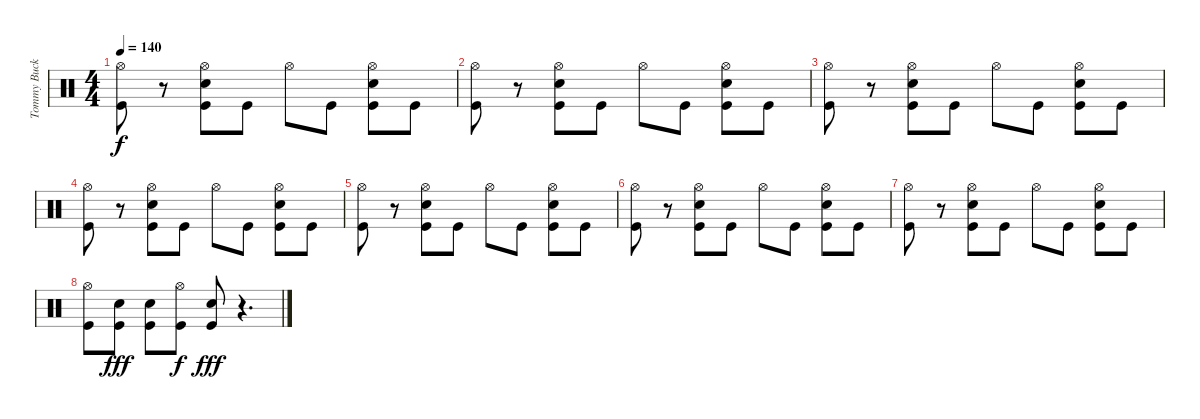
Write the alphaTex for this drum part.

\track ("Tommy Buckly (drums)" "Tommy Buck") {instrument percussion}
\staff {score}
\articulation defaults
\ts (4 4)
\tempo 140
\clef neutral
\ks c
("Hi-Hat (open)" "Kick (hit)").8{dy f} r.8 ("Hi-Hat (open)" "Electric Snare (hit)" "Kick (hit)").8 "Kick (hit)".8 "Hi-Hat (open)".8 "Kick (hit)".8 ("Hi-Hat (open)" "Electric Snare (hit)" "Kick (hit)").8 "Kick (hit)".8 |
("Hi-Hat (open)" "Kick (hit)").8 r.8 ("Hi-Hat (open)" "Electric Snare (hit)" "Kick (hit)").8 "Kick (hit)".8 "Hi-Hat (open)".8 "Kick (hit)".8 ("Hi-Hat (open)" "Electric Snare (hit)" "Kick (hit)").8 "Kick (hit)".8 |
("Hi-Hat (open)" "Kick (hit)").8 r.8 ("Hi-Hat (open)" "Electric Snare (hit)" "Kick (hit)").8 "Kick (hit)".8 "Hi-Hat (open)".8 "Kick (hit)".8 ("Hi-Hat (open)" "Electric Snare (hit)" "Kick (hit)").8 "Kick (hit)".8 |
("Hi-Hat (open)" "Kick (hit)").8 r.8 ("Hi-Hat (open)" "Electric Snare (hit)" "Kick (hit)").8 "Kick (hit)".8 "Hi-Hat (open)".8 "Kick (hit)".8 ("Hi-Hat (open)" "Electric Snare (hit)" "Kick (hit)").8 "Kick (hit)".8 |
("Hi-Hat (open)" "Kick (hit)").8 r.8 ("Hi-Hat (open)" "Electric Snare (hit)" "Kick (hit)").8 "Kick (hit)".8 "Hi-Hat (open)".8 "Kick (hit)".8 ("Hi-Hat (open)" "Electric Snare (hit)" "Kick (hit)").8 "Kick (hit)".8 |
("Hi-Hat (open)" "Kick (hit)").8 r.8 ("Hi-Hat (open)" "Electric Snare (hit)" "Kick (hit)").8 "Kick (hit)".8 "Hi-Hat (open)".8 "Kick (hit)".8 ("Hi-Hat (open)" "Electric Snare (hit)" "Kick (hit)").8 "Kick (hit)".8 |
("Hi-Hat (open)" "Kick (hit)").8 r.8 ("Hi-Hat (open)" "Electric Snare (hit)" "Kick (hit)").8 "Kick (hit)".8 "Hi-Hat (open)".8 "Kick (hit)".8 ("Hi-Hat (open)" "Electric Snare (hit)" "Kick (hit)").8 "Kick (hit)".8 |
("Hi-Hat (open)" "Kick (hit)").8 ("Electric Snare (hit)" "Kick (hit)").8{dy fff} ("Electric Snare (hit)" "Kick (hit)").8 ("Hi-Hat (open)" "Kick (hit)").8{dy f} ("Electric Snare (hit)" "Kick (hit)").8{dy fff} r.4{d}
